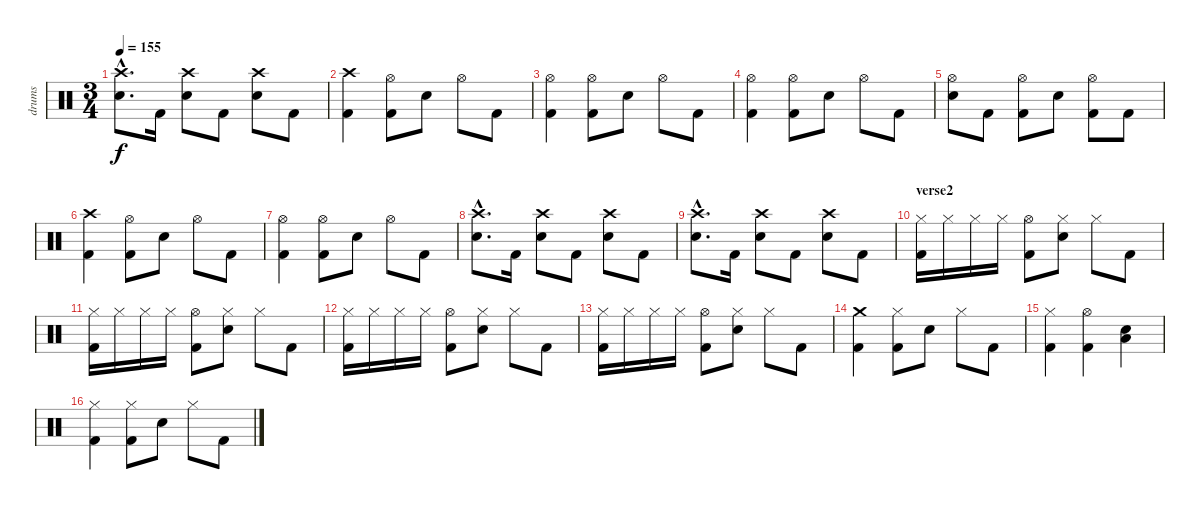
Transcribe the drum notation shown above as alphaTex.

\track ("drums" "drums") {instrument percussion}
\staff {score}
\articulation defaults
\ts (3 4)
\tempo 155
\clef neutral
\ks c
("Crash high (hit)"{hac} "Electric Snare (hit)"{hac}).8{d dy f} "Kick (hit) 2".16 ("Crash high (hit)" "Electric Snare (hit)").8 "Kick (hit) 2".8 ("Crash high (hit)" "Electric Snare (hit)").8 "Kick (hit) 2".8 |
("Crash high (hit)" "Kick (hit) 2").4 ("Hi-Hat (open)" "Kick (hit) 2").8 "Electric Snare (hit)".8 "Hi-Hat (open)".8 "Kick (hit) 2".8 |
("Hi-Hat (open)" "Kick (hit) 2").4 ("Hi-Hat (open)" "Kick (hit) 2").8 "Electric Snare (hit)".8 "Hi-Hat (open)".8 "Kick (hit) 2".8 |
("Hi-Hat (open)" "Kick (hit) 2").4 ("Hi-Hat (open)" "Kick (hit) 2").8 "Electric Snare (hit)".8 "Hi-Hat (open)".8 "Kick (hit) 2".8 |
("Hi-Hat (open)" "Electric Snare (hit)").8 "Kick (hit) 2".8 ("Hi-Hat (open)" "Kick (hit) 2").8 "Electric Snare (hit)".8 ("Hi-Hat (open)" "Kick (hit) 2").8 "Kick (hit) 2".8 |
("Crash high (hit)" "Kick (hit) 2").4 ("Hi-Hat (open)" "Kick (hit) 2").8 "Electric Snare (hit)".8 "Hi-Hat (open)".8 "Kick (hit) 2".8 |
("Hi-Hat (open)" "Kick (hit) 2").4 ("Hi-Hat (open)" "Kick (hit) 2").8 "Electric Snare (hit)".8 "Hi-Hat (open)".8 "Kick (hit) 2".8 |
("Crash high (hit)"{hac} "Electric Snare (hit)"{hac}).8{d} "Kick (hit) 2".16 ("Crash high (hit)" "Electric Snare (hit)").8 "Kick (hit) 2".8 ("Crash high (hit)" "Electric Snare (hit)").8 "Kick (hit) 2".8 |
("Crash high (hit)"{hac} "Electric Snare (hit)"{hac}).8{d} "Kick (hit) 2".16 ("Crash high (hit)" "Electric Snare (hit)").8 "Kick (hit) 2".8 ("Crash high (hit)" "Electric Snare (hit)").8 "Kick (hit) 2".8 |
\section ("" "verse2")
("Hi-Hat (closed)" "Kick (hit) 2").16 "Hi-Hat (closed)".16 "Hi-Hat (closed)".16 "Hi-Hat (closed)".16 ("Hi-Hat (open)" "Kick (hit) 2").8 ("Hi-Hat (closed)" "Electric Snare (hit)").8 "Hi-Hat (closed)".8 "Kick (hit) 2".8 |
("Hi-Hat (closed)" "Kick (hit) 2").16 "Hi-Hat (closed)".16 "Hi-Hat (closed)".16 "Hi-Hat (closed)".16 ("Hi-Hat (open)" "Kick (hit) 2").8 ("Hi-Hat (closed)" "Electric Snare (hit)").8 "Hi-Hat (closed)".8 "Kick (hit) 2".8 |
("Hi-Hat (closed)" "Kick (hit) 2").16 "Hi-Hat (closed)".16 "Hi-Hat (closed)".16 "Hi-Hat (closed)".16 ("Hi-Hat (open)" "Kick (hit) 2").8 ("Hi-Hat (closed)" "Electric Snare (hit)").8 "Hi-Hat (closed)".8 "Kick (hit) 2".8 |
("Hi-Hat (closed)" "Kick (hit) 2").16 "Hi-Hat (closed)".16 "Hi-Hat (closed)".16 "Hi-Hat (closed)".16 ("Hi-Hat (open)" "Kick (hit) 2").8 ("Hi-Hat (closed)" "Electric Snare (hit)").8 "Hi-Hat (closed)".8 "Kick (hit) 2".8 |
("Crash medium (hit)" "Kick (hit) 2").4 ("Hi-Hat (closed)" "Kick (hit) 2").8 "Electric Snare (hit)".8 "Hi-Hat (closed)".8 "Kick (hit) 2".8 |
("Hi-Hat (closed)" "Kick (hit) 2").4 ("Hi-Hat (open)" "Kick (hit) 2").4 ("Low Floor Tom (hit)" "Electric Snare (hit)").4 |
("Hi-Hat (closed)" "Kick (hit) 2").4 ("Hi-Hat (closed)" "Kick (hit) 2").8 "Electric Snare (hit)".8 "Hi-Hat (closed)".8 "Kick (hit) 2".8
